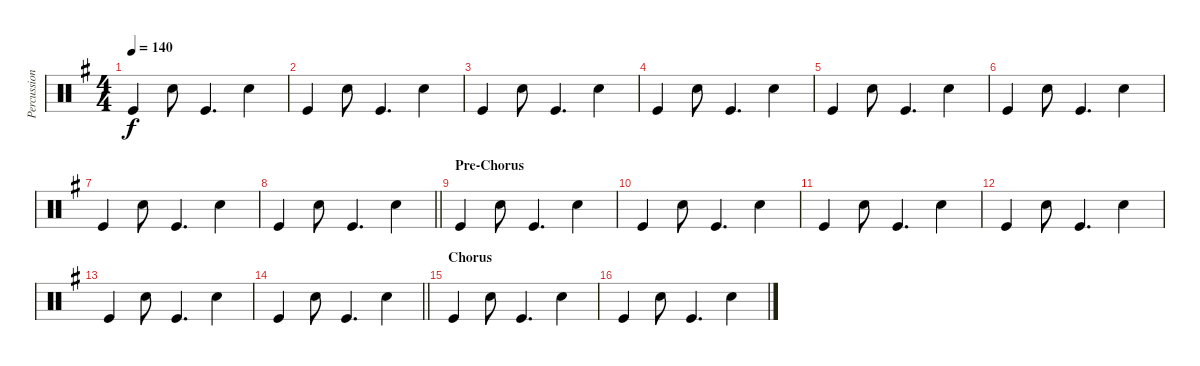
\track ("Percussion" "Percussion") {instrument percussion}
\staff {score}
\articulation defaults
\ts (4 4)
\tempo 140
\clef neutral
\ks g "Kick (hit)".4{dy f} "Electric Snare (hit)".8 "Kick (hit)".4{d} "Electric Snare (hit)".4
|
"Kick (hit)".4 "Electric Snare (hit)".8 "Kick (hit)".4{d} "Electric Snare (hit)".4 |
"Kick (hit)".4 "Electric Snare (hit)".8 "Kick (hit)".4{d} "Electric Snare (hit)".4 |
"Kick (hit)".4 "Electric Snare (hit)".8 "Kick (hit)".4{d} "Electric Snare (hit)".4 |
"Kick (hit)".4 "Electric Snare (hit)".8 "Kick (hit)".4{d} "Electric Snare (hit)".4 |
"Kick (hit)".4 "Electric Snare (hit)".8 "Kick (hit)".4{d} "Electric Snare (hit)".4 |
"Kick (hit)".4 "Electric Snare (hit)".8 "Kick (hit)".4{d} "Electric Snare (hit)".4 |
\barLineRight lightlight "Kick (hit)".4 "Electric Snare (hit)".8 "Kick (hit)".4{d} "Electric Snare (hit)".4
|
\section ("" "Pre-Chorus ")
"Kick (hit)".4 "Electric Snare (hit)".8 "Kick (hit)".4{d} "Electric Snare (hit)".4 |
"Kick (hit)".4 "Electric Snare (hit)".8 "Kick (hit)".4{d} "Electric Snare (hit)".4 |
"Kick (hit)".4 "Electric Snare (hit)".8 "Kick (hit)".4{d} "Electric Snare (hit)".4 |
"Kick (hit)".4 "Electric Snare (hit)".8 "Kick (hit)".4{d} "Electric Snare (hit)".4 |
"Kick (hit)".4 "Electric Snare (hit)".8 "Kick (hit)".4{d} "Electric Snare (hit)".4 |
\barLineRight lightlight "Kick (hit)".4 "Electric Snare (hit)".8 "Kick (hit)".4{d} "Electric Snare (hit)".4
|
\section ("" "Chorus ")
"Kick (hit)".4 "Electric Snare (hit)".8 "Kick (hit)".4{d} "Electric Snare (hit)".4 |
"Kick (hit)".4 "Electric Snare (hit)".8 "Kick (hit)".4{d} "Electric Snare (hit)".4
